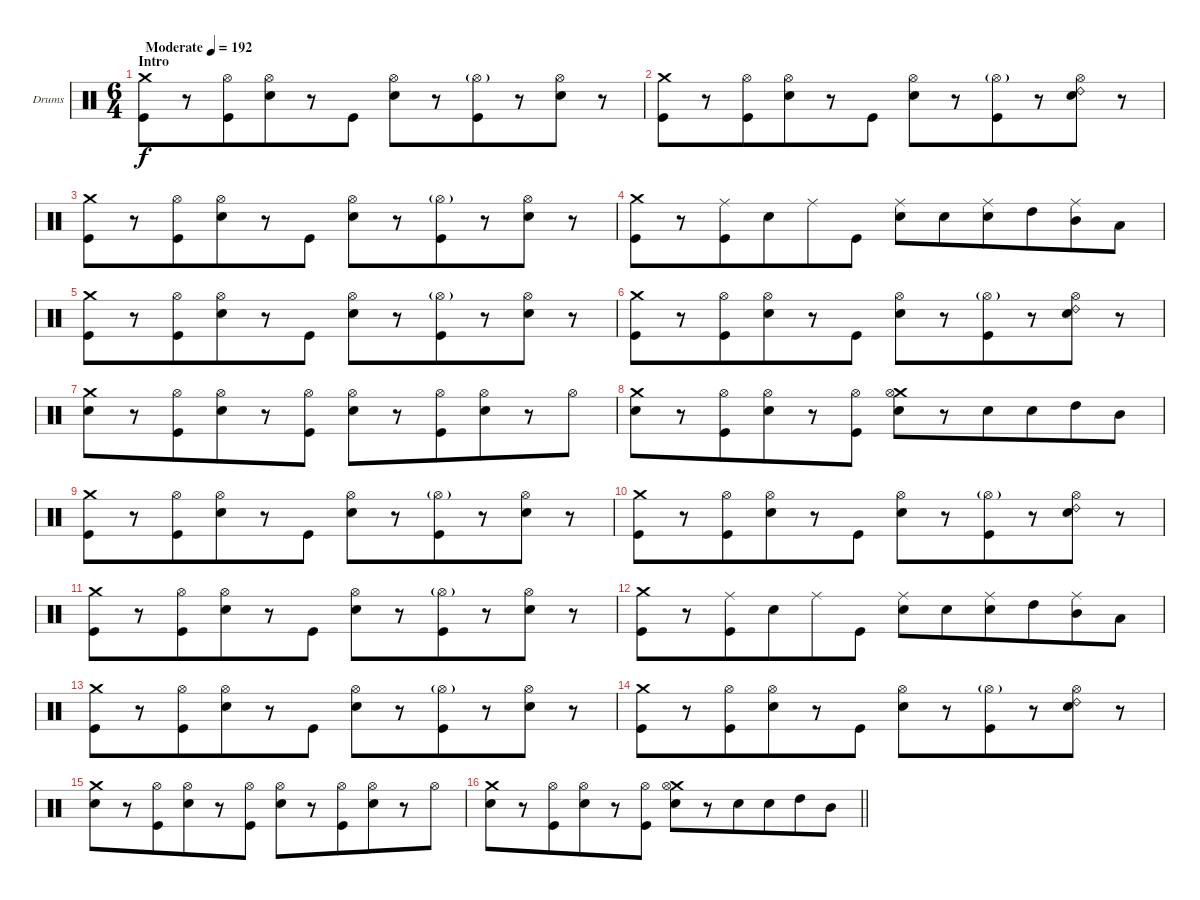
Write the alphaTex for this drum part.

\bracketExtendMode groupsimilarinstruments
\firstSystemTrackNameOrientation horizontal
\otherSystemsTrackNameOrientation horizontal
\track ("Drumkit" "Drums") {instrument percussion}
\staff {score}
\articulation defaults
\ts (6 4)
\beaming (8 6 6)
\section ("" "Intro")
\tempo (192 "Moderate")
\clef neutral
\ks c
("Crash medium (hit)" "Kick (hit)").8{dy f} r.8 ("Hi-Hat (open)" "Kick (hit)").8 ("Hi-Hat (open)" "Snare (hit) 2").8 r.8 "Kick (hit)".8 ("Hi-Hat (open)" "Snare (hit) 2").8 r.8 ("Hi-Hat (open)"{g} "Kick (hit)").8 r.8 ("Hi-Hat (open)" "Snare (hit) 2").8 r.8 |
("Crash medium (hit)" "Kick (hit)").8 r.8 ("Hi-Hat (open)" "Kick (hit)").8 ("Hi-Hat (open)" "Snare (hit) 2").8 r.8 "Kick (hit)".8 ("Hi-Hat (open)" "Snare (hit) 2").8 r.8 ("Hi-Hat (open)"{g} "Kick (hit)").8 r.8 ("Ride (bell) 2" "Hi-Hat (open)" "Snare (hit) 2").8 r.8 |
("Crash medium (hit)" "Kick (hit)").8 r.8 ("Hi-Hat (open)" "Kick (hit)").8 ("Hi-Hat (open)" "Snare (hit) 2").8 r.8 "Kick (hit)".8 ("Hi-Hat (open)" "Snare (hit) 2").8 r.8 ("Hi-Hat (open)"{g} "Kick (hit)").8 r.8 ("Hi-Hat (open)" "Snare (hit) 2").8 r.8 |
("Crash medium (hit)" "Kick (hit)").8 r.8 ("Ride (middle)" "Kick (hit)").8 "Snare (hit) 2".8 "Ride (middle)".8 "Kick (hit)".8 ("Ride (middle)" "Snare (hit) 2").8 "Snare (hit) 2".8 ("Ride (middle)" "Snare (hit) 2").8 "High Tom (hit)".8 ("Ride (middle)" "Mid Tom (hit)").8 "Low Tom (hit)".8 |
("Crash medium (hit)" "Kick (hit)").8 r.8 ("Hi-Hat (open)" "Kick (hit)").8 ("Hi-Hat (open)" "Snare (hit) 2").8 r.8 "Kick (hit)".8 ("Hi-Hat (open)" "Snare (hit) 2").8 r.8 ("Hi-Hat (open)"{g} "Kick (hit)").8 r.8 ("Hi-Hat (open)" "Snare (hit) 2").8 r.8 |
("Crash medium (hit)" "Kick (hit)").8 r.8 ("Hi-Hat (open)" "Kick (hit)").8 ("Hi-Hat (open)" "Snare (hit) 2").8 r.8 "Kick (hit)".8 ("Hi-Hat (open)" "Snare (hit) 2").8 r.8 ("Hi-Hat (open)"{g} "Kick (hit)").8 r.8 ("Ride (bell) 2" "Hi-Hat (open)" "Snare (hit) 2").8 r.8 |
("Crash medium (hit)" "Snare (hit) 2").8 r.8 ("Hi-Hat (open)" "Kick (hit)").8 ("Hi-Hat (open)" "Snare (hit) 2").8 r.8 ("Hi-Hat (open)" "Kick (hit)").8 ("Hi-Hat (open)" "Snare (hit) 2").8 r.8 ("Hi-Hat (open)" "Kick (hit)").8 ("Hi-Hat (open)" "Snare (hit) 2").8 r.8 "Hi-Hat (open)".8 |
("Crash medium (hit)" "Snare (hit) 2").8 r.8 ("Hi-Hat (open)" "Kick (hit)").8 ("Hi-Hat (open)" "Snare (hit) 2").8 r.8 ("Hi-Hat (open)" "Kick (hit)").8 ("Crash medium (hit)" "Hi-Hat (open)" "Snare (hit) 2").8 r.8 "Snare (hit) 2".8 "Snare (hit) 2".8 "High Tom (hit)".8 "Mid Tom (hit)".8 |
("Crash medium (hit)" "Kick (hit)").8 r.8 ("Hi-Hat (open)" "Kick (hit)").8 ("Hi-Hat (open)" "Snare (hit) 2").8 r.8 "Kick (hit)".8 ("Hi-Hat (open)" "Snare (hit) 2").8 r.8 ("Hi-Hat (open)"{g} "Kick (hit)").8 r.8 ("Hi-Hat (open)" "Snare (hit) 2").8 r.8 |
("Crash medium (hit)" "Kick (hit)").8 r.8 ("Hi-Hat (open)" "Kick (hit)").8 ("Hi-Hat (open)" "Snare (hit) 2").8 r.8 "Kick (hit)".8 ("Hi-Hat (open)" "Snare (hit) 2").8 r.8 ("Hi-Hat (open)"{g} "Kick (hit)").8 r.8 ("Ride (bell) 2" "Hi-Hat (open)" "Snare (hit) 2").8 r.8 |
("Crash medium (hit)" "Kick (hit)").8 r.8 ("Hi-Hat (open)" "Kick (hit)").8 ("Hi-Hat (open)" "Snare (hit) 2").8 r.8 "Kick (hit)".8 ("Hi-Hat (open)" "Snare (hit) 2").8 r.8 ("Hi-Hat (open)"{g} "Kick (hit)").8 r.8 ("Hi-Hat (open)" "Snare (hit) 2").8 r.8 |
("Crash medium (hit)" "Kick (hit)").8 r.8 ("Ride (middle)" "Kick (hit)").8 "Snare (hit) 2".8 "Ride (middle)".8 "Kick (hit)".8 ("Ride (middle)" "Snare (hit) 2").8 "Snare (hit) 2".8 ("Ride (middle)" "Snare (hit) 2").8 "High Tom (hit)".8 ("Ride (middle)" "Mid Tom (hit)").8 "Low Tom (hit)".8 |
("Crash medium (hit)" "Kick (hit)").8 r.8 ("Hi-Hat (open)" "Kick (hit)").8 ("Hi-Hat (open)" "Snare (hit) 2").8 r.8 "Kick (hit)".8 ("Hi-Hat (open)" "Snare (hit) 2").8 r.8 ("Hi-Hat (open)"{g} "Kick (hit)").8 r.8 ("Hi-Hat (open)" "Snare (hit) 2").8 r.8 |
("Crash medium (hit)" "Kick (hit)").8 r.8 ("Hi-Hat (open)" "Kick (hit)").8 ("Hi-Hat (open)" "Snare (hit) 2").8 r.8 "Kick (hit)".8 ("Hi-Hat (open)" "Snare (hit) 2").8 r.8 ("Hi-Hat (open)"{g} "Kick (hit)").8 r.8 ("Ride (bell) 2" "Hi-Hat (open)" "Snare (hit) 2").8 r.8 |
("Crash medium (hit)" "Snare (hit) 2").8 r.8 ("Hi-Hat (open)" "Kick (hit)").8 ("Hi-Hat (open)" "Snare (hit) 2").8 r.8 ("Hi-Hat (open)" "Kick (hit)").8 ("Hi-Hat (open)" "Snare (hit) 2").8 r.8 ("Hi-Hat (open)" "Kick (hit)").8 ("Hi-Hat (open)" "Snare (hit) 2").8 r.8 "Hi-Hat (open)".8 |
\barLineRight lightlight
("Crash medium (hit)" "Snare (hit) 2").8 r.8 ("Hi-Hat (open)" "Kick (hit)").8 ("Hi-Hat (open)" "Snare (hit) 2").8 r.8 ("Hi-Hat (open)" "Kick (hit)").8 ("Crash medium (hit)" "Hi-Hat (open)" "Snare (hit) 2").8 r.8 "Snare (hit) 2".8 "Snare (hit) 2".8 "High Tom (hit)".8 "Mid Tom (hit)".8
